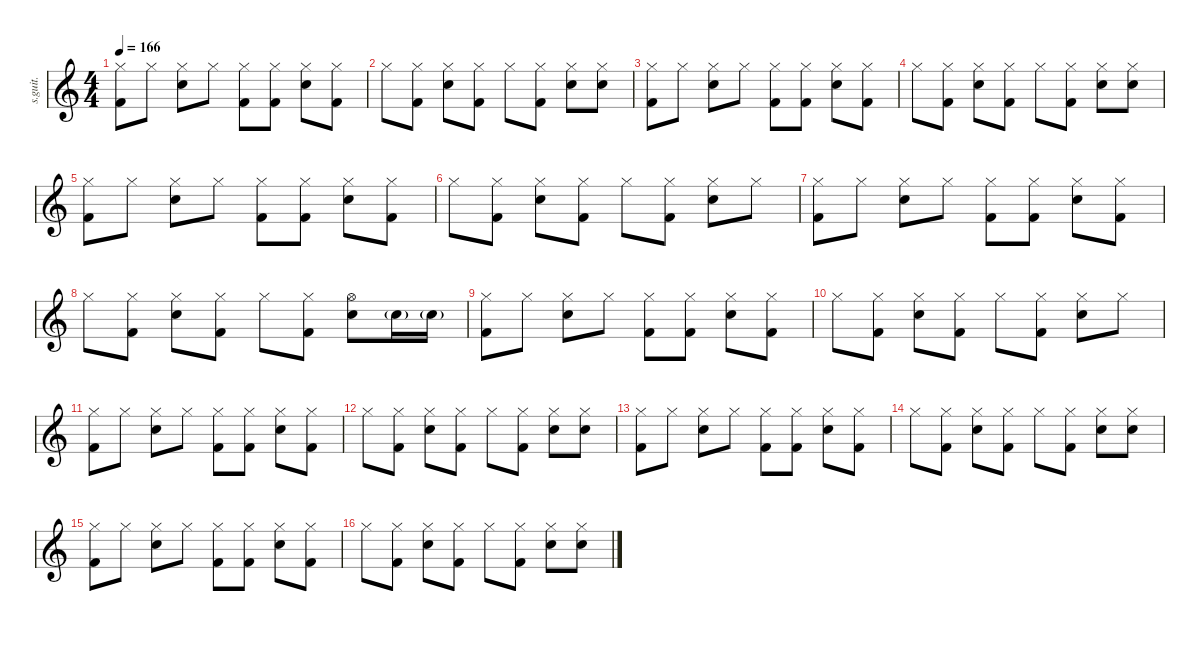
\defaultSystemsLayout 4
\hideDynamics
\bracketExtendMode nobrackets
\track ("Phil Selway" "s.guit.") {instrument percussion}
\staff {score}
\articulation defaults
\ts (4 4)
\tempo 166
\clef g2
\ks c
("Hi-Hat (closed)" "Kick (hit) 2").8{lyrics (0 "") lyrics (1 "") lyrics (2 "") lyrics (3 "") lyrics (4 "") dy f} "Hi-Hat (closed)".8{lyrics (0 "") lyrics (1 "") lyrics (2 "") lyrics (3 "") lyrics (4 "") dy mp} ("Hi-Hat (closed)" "Electric Snare (hit)").8{lyrics (0 "") lyrics (1 "") lyrics (2 "") lyrics (3 "") lyrics (4 "") dy f} "Hi-Hat (closed)".8{lyrics (0 "") lyrics (1 "") lyrics (2 "") lyrics (3 "") lyrics (4 "") dy mp} ("Hi-Hat (closed)" "Kick (hit) 2").8{lyrics (0 "") lyrics (1 "") lyrics (2 "") lyrics (3 "") lyrics (4 "") dy f} ("Hi-Hat (closed)" "Kick (hit) 2").8{lyrics (0 "") lyrics (1 "") lyrics (2 "") lyrics (3 "") lyrics (4 "")} ("Hi-Hat (closed)" "Electric Snare (hit)").8{lyrics (0 "") lyrics (1 "") lyrics (2 "") lyrics (3 "") lyrics (4 "")} ("Hi-Hat (closed)" "Kick (hit) 2").8{lyrics (0 "") lyrics (1 "") lyrics (2 "") lyrics (3 "") lyrics (4 "")} |
"Hi-Hat (closed)".8{lyrics (0 "") lyrics (1 "") lyrics (2 "") lyrics (3 "") lyrics (4 "") dy ff} ("Hi-Hat (closed)" "Kick (hit) 2").8{lyrics (0 "") lyrics (1 "") lyrics (2 "") lyrics (3 "") lyrics (4 "") dy f} ("Hi-Hat (closed)" "Electric Snare (hit)").8{lyrics (0 "") lyrics (1 "") lyrics (2 "") lyrics (3 "") lyrics (4 "")} ("Hi-Hat (closed)" "Kick (hit) 2").8{lyrics (0 "") lyrics (1 "") lyrics (2 "") lyrics (3 "") lyrics (4 "")} "Hi-Hat (closed)".8{lyrics (0 "") lyrics (1 "") lyrics (2 "") lyrics (3 "") lyrics (4 "") dy ff} ("Hi-Hat (closed)" "Kick (hit) 2").8{lyrics (0 "") lyrics (1 "") lyrics (2 "") lyrics (3 "") lyrics (4 "") dy f} ("Hi-Hat (closed)" "Electric Snare (hit)").8{lyrics (0 "") lyrics (1 "") lyrics (2 "") lyrics (3 "") lyrics (4 "")} ("Hi-Hat (closed)" "Snare (hit) 2").8{lyrics (0 "") lyrics (1 "") lyrics (2 "") lyrics (3 "") lyrics (4 "")} |
("Hi-Hat (closed)" "Kick (hit) 2").8{lyrics (0 "") lyrics (1 "") lyrics (2 "") lyrics (3 "") lyrics (4 "")} "Hi-Hat (closed)".8{lyrics (0 "") lyrics (1 "") lyrics (2 "") lyrics (3 "") lyrics (4 "") dy mp} ("Hi-Hat (closed)" "Electric Snare (hit)").8{lyrics (0 "") lyrics (1 "") lyrics (2 "") lyrics (3 "") lyrics (4 "") dy f} "Hi-Hat (closed)".8{lyrics (0 "") lyrics (1 "") lyrics (2 "") lyrics (3 "") lyrics (4 "") dy mp} ("Hi-Hat (closed)" "Kick (hit) 2").8{lyrics (0 "") lyrics (1 "") lyrics (2 "") lyrics (3 "") lyrics (4 "") dy f} ("Hi-Hat (closed)" "Kick (hit) 2").8{lyrics (0 "") lyrics (1 "") lyrics (2 "") lyrics (3 "") lyrics (4 "")} ("Hi-Hat (closed)" "Electric Snare (hit)").8{lyrics (0 "") lyrics (1 "") lyrics (2 "") lyrics (3 "") lyrics (4 "")} ("Hi-Hat (closed)" "Kick (hit) 2").8{lyrics (0 "") lyrics (1 "") lyrics (2 "") lyrics (3 "") lyrics (4 "")} |
"Hi-Hat (closed)".8{lyrics (0 "") lyrics (1 "") lyrics (2 "") lyrics (3 "") lyrics (4 "") dy ff} ("Hi-Hat (closed)" "Kick (hit) 2").8{lyrics (0 "") lyrics (1 "") lyrics (2 "") lyrics (3 "") lyrics (4 "") dy f} ("Hi-Hat (closed)" "Electric Snare (hit)").8{lyrics (0 "") lyrics (1 "") lyrics (2 "") lyrics (3 "") lyrics (4 "")} ("Hi-Hat (closed)" "Kick (hit) 2").8{lyrics (0 "") lyrics (1 "") lyrics (2 "") lyrics (3 "") lyrics (4 "")} "Hi-Hat (closed)".8{lyrics (0 "") lyrics (1 "") lyrics (2 "") lyrics (3 "") lyrics (4 "") dy ff} ("Hi-Hat (closed)" "Kick (hit) 2").8{lyrics (0 "") lyrics (1 "") lyrics (2 "") lyrics (3 "") lyrics (4 "") dy f} ("Hi-Hat (closed)" "Electric Snare (hit)").8{lyrics (0 "") lyrics (1 "") lyrics (2 "") lyrics (3 "") lyrics (4 "")} ("Hi-Hat (closed)" "Snare (hit) 2").8{lyrics (0 "") lyrics (1 "") lyrics (2 "") lyrics (3 "") lyrics (4 "")} |
("Hi-Hat (closed)" "Kick (hit) 2").8{lyrics (0 "") lyrics (1 "") lyrics (2 "") lyrics (3 "") lyrics (4 "")} "Hi-Hat (closed)".8{lyrics (0 "") lyrics (1 "") lyrics (2 "") lyrics (3 "") lyrics (4 "") dy mp} ("Hi-Hat (closed)" "Electric Snare (hit)").8{lyrics (0 "") lyrics (1 "") lyrics (2 "") lyrics (3 "") lyrics (4 "") dy f} "Hi-Hat (closed)".8{lyrics (0 "") lyrics (1 "") lyrics (2 "") lyrics (3 "") lyrics (4 "") dy mp} ("Hi-Hat (closed)" "Kick (hit) 2").8{lyrics (0 "") lyrics (1 "") lyrics (2 "") lyrics (3 "") lyrics (4 "") dy f} ("Hi-Hat (closed)" "Kick (hit) 2").8{lyrics (0 "") lyrics (1 "") lyrics (2 "") lyrics (3 "") lyrics (4 "")} ("Hi-Hat (closed)" "Electric Snare (hit)").8{lyrics (0 "") lyrics (1 "") lyrics (2 "") lyrics (3 "") lyrics (4 "")} ("Hi-Hat (closed)" "Kick (hit) 2").8{lyrics (0 "") lyrics (1 "") lyrics (2 "") lyrics (3 "") lyrics (4 "")} |
"Hi-Hat (closed)".8{lyrics (0 "") lyrics (1 "") lyrics (2 "") lyrics (3 "") lyrics (4 "") dy ff} ("Hi-Hat (closed)" "Kick (hit) 2").8{lyrics (0 "") lyrics (1 "") lyrics (2 "") lyrics (3 "") lyrics (4 "") dy f} ("Hi-Hat (closed)" "Electric Snare (hit)").8{lyrics (0 "") lyrics (1 "") lyrics (2 "") lyrics (3 "") lyrics (4 "")} ("Hi-Hat (closed)" "Kick (hit) 2").8{lyrics (0 "") lyrics (1 "") lyrics (2 "") lyrics (3 "") lyrics (4 "")} "Hi-Hat (closed)".8{lyrics (0 "") lyrics (1 "") lyrics (2 "") lyrics (3 "") lyrics (4 "") dy ff} ("Hi-Hat (closed)" "Kick (hit) 2").8{lyrics (0 "") lyrics (1 "") lyrics (2 "") lyrics (3 "") lyrics (4 "") dy f} ("Hi-Hat (closed)" "Electric Snare (hit)").8{lyrics (0 "") lyrics (1 "") lyrics (2 "") lyrics (3 "") lyrics (4 "")} "Hi-Hat (closed)".8{lyrics (0 "") lyrics (1 "") lyrics (2 "") lyrics (3 "") lyrics (4 "") dy mp} |
("Hi-Hat (closed)" "Kick (hit) 2").8{lyrics (0 "") lyrics (1 "") lyrics (2 "") lyrics (3 "") lyrics (4 "") dy f} "Hi-Hat (closed)".8{lyrics (0 "") lyrics (1 "") lyrics (2 "") lyrics (3 "") lyrics (4 "") dy mp} ("Hi-Hat (closed)" "Electric Snare (hit)").8{lyrics (0 "") lyrics (1 "") lyrics (2 "") lyrics (3 "") lyrics (4 "") dy f} "Hi-Hat (closed)".8{lyrics (0 "") lyrics (1 "") lyrics (2 "") lyrics (3 "") lyrics (4 "") dy mp} ("Hi-Hat (closed)" "Kick (hit) 2").8{lyrics (0 "") lyrics (1 "") lyrics (2 "") lyrics (3 "") lyrics (4 "") dy f} ("Hi-Hat (closed)" "Kick (hit) 2").8{lyrics (0 "") lyrics (1 "") lyrics (2 "") lyrics (3 "") lyrics (4 "")} ("Hi-Hat (closed)" "Electric Snare (hit)").8{lyrics (0 "") lyrics (1 "") lyrics (2 "") lyrics (3 "") lyrics (4 "")} ("Hi-Hat (closed)" "Kick (hit) 2").8{lyrics (0 "") lyrics (1 "") lyrics (2 "") lyrics (3 "") lyrics (4 "")} |
"Hi-Hat (closed)".8{lyrics (0 "") lyrics (1 "") lyrics (2 "") lyrics (3 "") lyrics (4 "") dy ff} ("Hi-Hat (closed)" "Kick (hit) 2").8{lyrics (0 "") lyrics (1 "") lyrics (2 "") lyrics (3 "") lyrics (4 "") dy f} ("Hi-Hat (closed)" "Electric Snare (hit)").8{lyrics (0 "") lyrics (1 "") lyrics (2 "") lyrics (3 "") lyrics (4 "")} ("Hi-Hat (closed)" "Kick (hit) 2").8{lyrics (0 "") lyrics (1 "") lyrics (2 "") lyrics (3 "") lyrics (4 "")} "Hi-Hat (closed)".8{lyrics (0 "") lyrics (1 "") lyrics (2 "") lyrics (3 "") lyrics (4 "") dy ff} ("Hi-Hat (closed)" "Kick (hit) 2").8{lyrics (0 "") lyrics (1 "") lyrics (2 "") lyrics (3 "") lyrics (4 "") dy f} ("Hi-Hat (open)" "Electric Snare (hit)").8{lyrics (0 "") lyrics (1 "") lyrics (2 "") lyrics (3 "") lyrics (4 "")} "Snare (hit) 2"{g}.16{lyrics (0 "") lyrics (1 "") lyrics (2 "") lyrics (3 "") lyrics (4 "") dy mf} "Snare (hit) 2"{g}.16{lyrics (0 "") lyrics (1 "") lyrics (2 "") lyrics (3 "") lyrics (4 "")} |
("Hi-Hat (closed)" "Kick (hit) 2").8{lyrics (0 "") lyrics (1 "") lyrics (2 "") lyrics (3 "") lyrics (4 "") dy f} "Hi-Hat (closed)".8{lyrics (0 "") lyrics (1 "") lyrics (2 "") lyrics (3 "") lyrics (4 "") dy mp} ("Hi-Hat (closed)" "Electric Snare (hit)").8{lyrics (0 "") lyrics (1 "") lyrics (2 "") lyrics (3 "") lyrics (4 "") dy f} "Hi-Hat (closed)".8{lyrics (0 "") lyrics (1 "") lyrics (2 "") lyrics (3 "") lyrics (4 "") dy mp} ("Hi-Hat (closed)" "Kick (hit) 2").8{lyrics (0 "") lyrics (1 "") lyrics (2 "") lyrics (3 "") lyrics (4 "") dy f} ("Hi-Hat (closed)" "Kick (hit) 2").8{lyrics (0 "") lyrics (1 "") lyrics (2 "") lyrics (3 "") lyrics (4 "")} ("Hi-Hat (closed)" "Electric Snare (hit)").8{lyrics (0 "") lyrics (1 "") lyrics (2 "") lyrics (3 "") lyrics (4 "")} ("Hi-Hat (closed)" "Kick (hit) 2").8{lyrics (0 "") lyrics (1 "") lyrics (2 "") lyrics (3 "") lyrics (4 "")} |
"Hi-Hat (closed)".8{lyrics (0 "") lyrics (1 "") lyrics (2 "") lyrics (3 "") lyrics (4 "") dy ff} ("Hi-Hat (closed)" "Kick (hit) 2").8{lyrics (0 "") lyrics (1 "") lyrics (2 "") lyrics (3 "") lyrics (4 "") dy f} ("Hi-Hat (closed)" "Electric Snare (hit)").8{lyrics (0 "") lyrics (1 "") lyrics (2 "") lyrics (3 "") lyrics (4 "")} ("Hi-Hat (closed)" "Kick (hit) 2").8{lyrics (0 "") lyrics (1 "") lyrics (2 "") lyrics (3 "") lyrics (4 "")} "Hi-Hat (closed)".8{lyrics (0 "") lyrics (1 "") lyrics (2 "") lyrics (3 "") lyrics (4 "") dy ff} ("Hi-Hat (closed)" "Kick (hit) 2").8{lyrics (0 "") lyrics (1 "") lyrics (2 "") lyrics (3 "") lyrics (4 "") dy f} ("Hi-Hat (closed)" "Electric Snare (hit)").8{lyrics (0 "") lyrics (1 "") lyrics (2 "") lyrics (3 "") lyrics (4 "")} "Hi-Hat (closed)".8{lyrics (0 "") lyrics (1 "") lyrics (2 "") lyrics (3 "") lyrics (4 "") dy mp} |
("Hi-Hat (closed)" "Kick (hit) 2").8{lyrics (0 "") lyrics (1 "") lyrics (2 "") lyrics (3 "") lyrics (4 "") dy f} "Hi-Hat (closed)".8{lyrics (0 "") lyrics (1 "") lyrics (2 "") lyrics (3 "") lyrics (4 "") dy mp} ("Hi-Hat (closed)" "Electric Snare (hit)").8{lyrics (0 "") lyrics (1 "") lyrics (2 "") lyrics (3 "") lyrics (4 "") dy f} "Hi-Hat (closed)".8{lyrics (0 "") lyrics (1 "") lyrics (2 "") lyrics (3 "") lyrics (4 "") dy mp} ("Hi-Hat (closed)" "Kick (hit) 2").8{lyrics (0 "") lyrics (1 "") lyrics (2 "") lyrics (3 "") lyrics (4 "") dy f} ("Hi-Hat (closed)" "Kick (hit) 2").8{lyrics (0 "") lyrics (1 "") lyrics (2 "") lyrics (3 "") lyrics (4 "")} ("Hi-Hat (closed)" "Electric Snare (hit)").8{lyrics (0 "") lyrics (1 "") lyrics (2 "") lyrics (3 "") lyrics (4 "")} ("Hi-Hat (closed)" "Kick (hit) 2").8{lyrics (0 "") lyrics (1 "") lyrics (2 "") lyrics (3 "") lyrics (4 "")} |
"Hi-Hat (closed)".8{lyrics (0 "") lyrics (1 "") lyrics (2 "") lyrics (3 "") lyrics (4 "") dy ff} ("Hi-Hat (closed)" "Kick (hit) 2").8{lyrics (0 "") lyrics (1 "") lyrics (2 "") lyrics (3 "") lyrics (4 "") dy f} ("Hi-Hat (closed)" "Electric Snare (hit)").8{lyrics (0 "") lyrics (1 "") lyrics (2 "") lyrics (3 "") lyrics (4 "")} ("Hi-Hat (closed)" "Kick (hit) 2").8{lyrics (0 "") lyrics (1 "") lyrics (2 "") lyrics (3 "") lyrics (4 "")} "Hi-Hat (closed)".8{lyrics (0 "") lyrics (1 "") lyrics (2 "") lyrics (3 "") lyrics (4 "") dy ff} ("Hi-Hat (closed)" "Kick (hit) 2").8{lyrics (0 "") lyrics (1 "") lyrics (2 "") lyrics (3 "") lyrics (4 "") dy f} ("Hi-Hat (closed)" "Electric Snare (hit)").8{lyrics (0 "") lyrics (1 "") lyrics (2 "") lyrics (3 "") lyrics (4 "")} ("Hi-Hat (closed)" "Snare (hit) 2").8{lyrics (0 "") lyrics (1 "") lyrics (2 "") lyrics (3 "") lyrics (4 "")} |
("Hi-Hat (closed)" "Kick (hit) 2").8{lyrics (0 "") lyrics (1 "") lyrics (2 "") lyrics (3 "") lyrics (4 "")} "Hi-Hat (closed)".8{lyrics (0 "") lyrics (1 "") lyrics (2 "") lyrics (3 "") lyrics (4 "") dy mp} ("Hi-Hat (closed)" "Electric Snare (hit)").8{lyrics (0 "") lyrics (1 "") lyrics (2 "") lyrics (3 "") lyrics (4 "") dy f} "Hi-Hat (closed)".8{lyrics (0 "") lyrics (1 "") lyrics (2 "") lyrics (3 "") lyrics (4 "") dy mp} ("Hi-Hat (closed)" "Kick (hit) 2").8{lyrics (0 "") lyrics (1 "") lyrics (2 "") lyrics (3 "") lyrics (4 "") dy f} ("Hi-Hat (closed)" "Kick (hit) 2").8{lyrics (0 "") lyrics (1 "") lyrics (2 "") lyrics (3 "") lyrics (4 "")} ("Hi-Hat (closed)" "Electric Snare (hit)").8{lyrics (0 "") lyrics (1 "") lyrics (2 "") lyrics (3 "") lyrics (4 "")} ("Hi-Hat (closed)" "Kick (hit) 2").8{lyrics (0 "") lyrics (1 "") lyrics (2 "") lyrics (3 "") lyrics (4 "")} |
"Hi-Hat (closed)".8{lyrics (0 "") lyrics (1 "") lyrics (2 "") lyrics (3 "") lyrics (4 "") dy ff} ("Hi-Hat (closed)" "Kick (hit) 2").8{lyrics (0 "") lyrics (1 "") lyrics (2 "") lyrics (3 "") lyrics (4 "") dy f} ("Hi-Hat (closed)" "Electric Snare (hit)").8{lyrics (0 "") lyrics (1 "") lyrics (2 "") lyrics (3 "") lyrics (4 "")} ("Hi-Hat (closed)" "Kick (hit) 2").8{lyrics (0 "") lyrics (1 "") lyrics (2 "") lyrics (3 "") lyrics (4 "")} "Hi-Hat (closed)".8{lyrics (0 "") lyrics (1 "") lyrics (2 "") lyrics (3 "") lyrics (4 "") dy ff} ("Hi-Hat (closed)" "Kick (hit) 2").8{lyrics (0 "") lyrics (1 "") lyrics (2 "") lyrics (3 "") lyrics (4 "") dy f} ("Hi-Hat (closed)" "Electric Snare (hit)").8{lyrics (0 "") lyrics (1 "") lyrics (2 "") lyrics (3 "") lyrics (4 "")} ("Hi-Hat (closed)" "Snare (hit) 2").8{lyrics (0 "") lyrics (1 "") lyrics (2 "") lyrics (3 "") lyrics (4 "")} |
("Hi-Hat (closed)" "Kick (hit) 2").8{lyrics (0 "") lyrics (1 "") lyrics (2 "") lyrics (3 "") lyrics (4 "")} "Hi-Hat (closed)".8{lyrics (0 "") lyrics (1 "") lyrics (2 "") lyrics (3 "") lyrics (4 "") dy mp} ("Hi-Hat (closed)" "Electric Snare (hit)").8{lyrics (0 "") lyrics (1 "") lyrics (2 "") lyrics (3 "") lyrics (4 "") dy f} "Hi-Hat (closed)".8{lyrics (0 "") lyrics (1 "") lyrics (2 "") lyrics (3 "") lyrics (4 "") dy mp} ("Hi-Hat (closed)" "Kick (hit) 2").8{lyrics (0 "") lyrics (1 "") lyrics (2 "") lyrics (3 "") lyrics (4 "") dy f} ("Hi-Hat (closed)" "Kick (hit) 2").8{lyrics (0 "") lyrics (1 "") lyrics (2 "") lyrics (3 "") lyrics (4 "")} ("Hi-Hat (closed)" "Electric Snare (hit)").8{lyrics (0 "") lyrics (1 "") lyrics (2 "") lyrics (3 "") lyrics (4 "")} ("Hi-Hat (closed)" "Kick (hit) 2").8{lyrics (0 "") lyrics (1 "") lyrics (2 "") lyrics (3 "") lyrics (4 "")} |
"Hi-Hat (closed)".8{lyrics (0 "") lyrics (1 "") lyrics (2 "") lyrics (3 "") lyrics (4 "") dy ff} ("Hi-Hat (closed)" "Kick (hit) 2").8{lyrics (0 "") lyrics (1 "") lyrics (2 "") lyrics (3 "") lyrics (4 "") dy f} ("Hi-Hat (closed)" "Electric Snare (hit)").8{lyrics (0 "") lyrics (1 "") lyrics (2 "") lyrics (3 "") lyrics (4 "")} ("Hi-Hat (closed)" "Kick (hit) 2").8{lyrics (0 "") lyrics (1 "") lyrics (2 "") lyrics (3 "") lyrics (4 "")} "Hi-Hat (closed)".8{lyrics (0 "") lyrics (1 "") lyrics (2 "") lyrics (3 "") lyrics (4 "") dy ff} ("Hi-Hat (closed)" "Kick (hit) 2").8{lyrics (0 "") lyrics (1 "") lyrics (2 "") lyrics (3 "") lyrics (4 "") dy f} ("Hi-Hat (closed)" "Electric Snare (hit)").8{lyrics (0 "") lyrics (1 "") lyrics (2 "") lyrics (3 "") lyrics (4 "")} ("Hi-Hat (closed)" "Snare (hit) 2").8{lyrics (0 "") lyrics (1 "") lyrics (2 "") lyrics (3 "") lyrics (4 "")}
